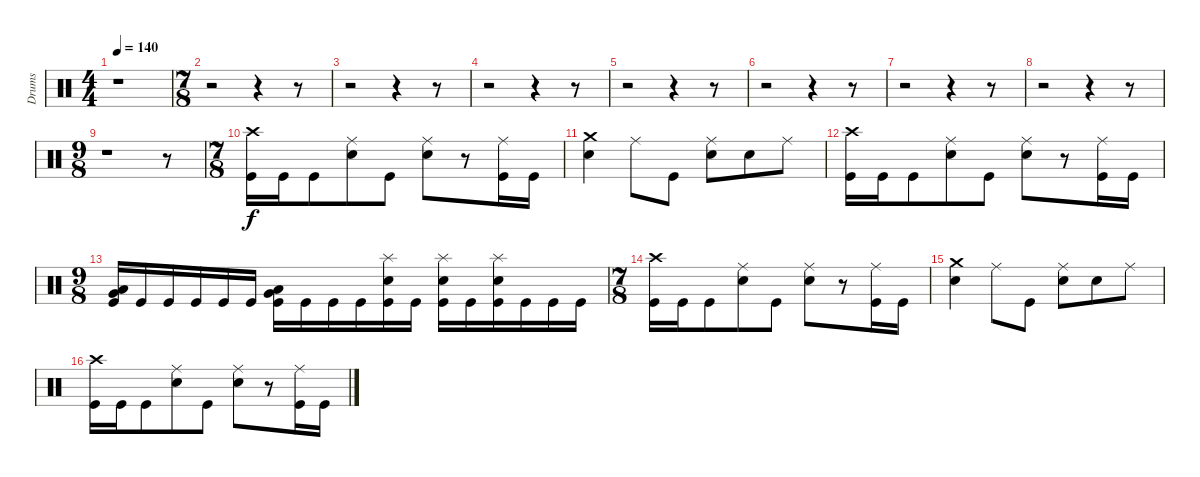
\track ("Drums" "Drums") {instrument percussion}
\staff {score}
\articulation defaults
\ts (4 4)
\tempo 140
\clef neutral
\ks c
r.1{dy f} |
\ts (7 8)
r.2 r.4 r.8 |
r.2 r.4 r.8 |
r.2 r.4 r.8 |
r.2 r.4 r.8 |
r.2 r.4 r.8 |
r.2 r.4 r.8 |
r.2 r.4 r.8 |
\ts (9 8)
r.1 r.8 |
\ts (7 8)
("Crash high (hit)" "Kick (hit)").16 "Kick (hit)".16 "Kick (hit)".8 ("Ride (middle)" "Electric Snare (hit)").8 "Kick (hit)".8 ("Ride (middle)" "Electric Snare (hit)").8 r.8 ("Ride (middle)" "Kick (hit)").16 "Kick (hit)".16 |
("Crash medium (hit)" "Electric Snare (hit)").4 "Ride (middle)".8 "Kick (hit)".8 ("Ride (middle)" "Electric Snare (hit)").8 "Electric Snare (hit)".8 "Ride (middle)".8 |
("Crash high (hit)" "Kick (hit)").16 "Kick (hit)".16 "Kick (hit)".8 ("Ride (middle)" "Electric Snare (hit)").8 "Kick (hit)".8 ("Ride (middle)" "Electric Snare (hit)").8 r.8 ("Ride (middle)" "Kick (hit)").16 "Kick (hit)".16 |
\ts (9 8)
("Low Tom (hit)" "Very Low Tom (hit)" "Kick (hit)").16 "Kick (hit)".16 "Kick (hit)".16 "Kick (hit)".16 "Kick (hit)".16 "Kick (hit)".16 ("Low Tom (hit)" "Very Low Tom (hit)" "Kick (hit)").16 "Kick (hit)".16 "Kick (hit)".16 "Kick (hit)".16 ("Splash (hit)" "Electric Snare (hit)" "Kick (hit)").16 "Kick (hit)".16 ("Splash (hit)" "Electric Snare (hit)" "Kick (hit)").16 "Kick (hit)".16 ("Splash (hit)" "Electric Snare (hit)" "Kick (hit)").16 "Kick (hit)".16 "Kick (hit)".16 "Kick (hit)".16 |
\ts (7 8)
("Crash high (hit)" "Kick (hit)").16 "Kick (hit)".16 "Kick (hit)".8 ("Ride (middle)" "Electric Snare (hit)").8 "Kick (hit)".8 ("Ride (middle)" "Electric Snare (hit)").8 r.8 ("Ride (middle)" "Kick (hit)").16 "Kick (hit)".16 |
("Crash medium (hit)" "Electric Snare (hit)").4 "Ride (middle)".8 "Kick (hit)".8 ("Ride (middle)" "Electric Snare (hit)").8 "Electric Snare (hit)".8 "Ride (middle)".8 |
("Crash high (hit)" "Kick (hit)").16 "Kick (hit)".16 "Kick (hit)".8 ("Ride (middle)" "Electric Snare (hit)").8 "Kick (hit)".8 ("Ride (middle)" "Electric Snare (hit)").8 r.8 ("Ride (middle)" "Kick (hit)").16 "Kick (hit)".16
